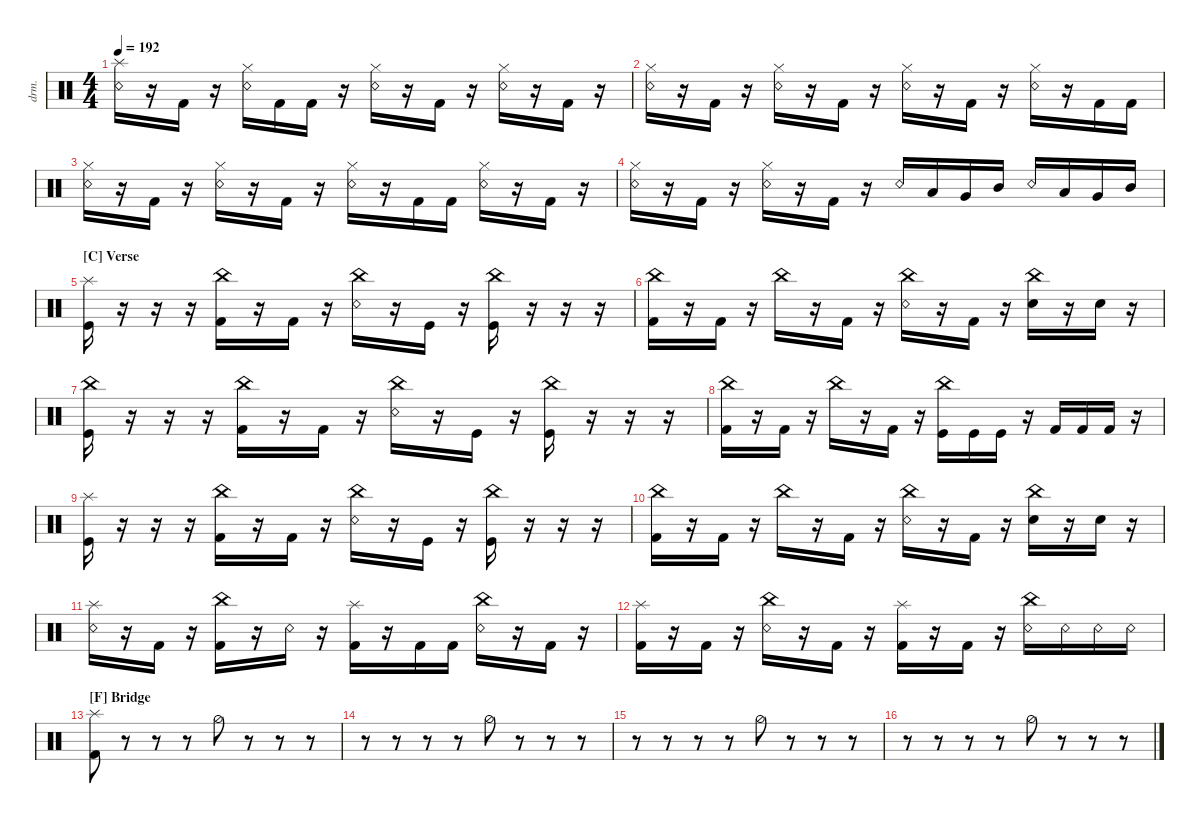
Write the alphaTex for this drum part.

\defaultSystemsLayout 4
\hideDynamics
\bracketExtendMode nobrackets
\otherSystemsTrackNameOrientation horizontal
\track ("Drumkit" "drm.") {instrument percussion}
\staff {score}
\articulation defaults
\ts (4 4)
\tempo 192
\clef neutral
\ks c
("Snare (rim shot)" "Splash (hit)").16{dy ff beam Down} r.16{beam Down} "Kick (hit) 2".16{beam Down} r.16{beam Down} ("Snare (rim shot)" "Hi-Hat (closed)").16{beam Down} "Kick (hit) 2".16{beam Down} "Kick (hit) 2".16{beam Down} r.16{beam Down} ("Snare (rim shot)" "Hi-Hat (closed)").16{beam Down} r.16{beam Down} "Kick (hit) 2".16{beam Down} r.16{beam Down} ("Snare (rim shot)" "Hi-Hat (closed)").16{beam Down} r.16{beam Down} "Kick (hit) 2".16{beam Down} r.16{beam Down} |
("Snare (rim shot)" "Hi-Hat (closed)").16{beam Down} r.16{beam Down} "Kick (hit) 2".16{beam Down} r.16{beam Down} ("Snare (rim shot)" "Hi-Hat (closed)").16{beam Down} r.16{beam Down} "Kick (hit) 2".16{beam Down} r.16{beam Down} ("Snare (rim shot)" "Hi-Hat (closed)").16{beam Down} r.16{beam Down} "Kick (hit) 2".16{beam Down} r.16{beam Down} ("Snare (rim shot)" "Hi-Hat (closed)").16{beam Down} r.16{beam Down} "Kick (hit) 2".16{beam Down} "Kick (hit) 2".16{beam Down} |
("Snare (rim shot)" "Hi-Hat (closed)").16{beam Down} r.16{beam Down} "Kick (hit) 2".16{beam Down} r.16{beam Down} ("Snare (rim shot)" "Hi-Hat (closed)").16{beam Down} r.16{beam Down} "Kick (hit) 2".16{beam Down} r.16{beam Down} ("Snare (rim shot)" "Hi-Hat (closed)").16{beam Down} r.16{beam Down} "Kick (hit) 2".16{beam Down} "Kick (hit) 2".16{beam Down} ("Snare (rim shot)" "Hi-Hat (closed)").16{beam Down} r.16{beam Down} "Kick (hit) 2".16{beam Down} r.16{beam Down} |
("Snare (rim shot)" "Hi-Hat (closed)").16{beam Down} r.16{beam Down} "Kick (hit) 2".16{beam Down} r.16{beam Down} ("Snare (rim shot)" "Hi-Hat (closed)").16{beam Down} r.16{beam Down} "Kick (hit) 2".16{beam Down} r.16{beam Down} "Snare (rim shot)".16{beam Up} "Low Tom (hit)".16{beam Up} "Very Low Tom (hit)".16{beam Up} "Mid Tom (hit)".16{beam Up} "Snare (rim shot)".16{beam Up} "Low Tom (hit)".16{beam Up} "Very Low Tom (hit)".16{beam Up} "Mid Tom (hit)".16{beam Up} |
\section ("C" "Verse")
("Kick (hit)" "Splash (hit)").16{beam Down} r.16{beam Down} r.16{beam Down} r.16{beam Down} ("China (hit)" "Kick (hit) 2").16{beam Down} r.16{beam Down} "Kick (hit) 2".16{beam Down} r.16{beam Down} ("China (hit)" "Snare (rim shot)").16{beam Down} r.16{beam Down} "Kick (hit)".16{beam Down} r.16{beam Down} ("Kick (hit)" "China (hit)").16{beam Down} r.16{beam Down} r.16{beam Down} r.16{beam Down} |
("Kick (hit) 2" "China (hit)").16{beam Down} r.16{beam Down} "Kick (hit) 2".16{beam Down} r.16{beam Down} "China (hit)".16{beam Down} r.16{beam Down} "Kick (hit) 2".16{beam Down} r.16{beam Down} ("China (hit)" "Snare (rim shot)").16{beam Down} r.16{beam Down} "Kick (hit) 2".16{beam Down} r.16{beam Down} ("China (hit)" "Snare (hit) 2").16{beam Down} r.16{beam Down} "Snare (hit) 2".16{beam Down} r.16{beam Down} |
("China (hit)" "Kick (hit)").16{beam Down} r.16{beam Down} r.16{beam Down} r.16{beam Down} ("China (hit)" "Kick (hit) 2").16{beam Down} r.16{beam Down} "Kick (hit) 2".16{beam Down} r.16{beam Down} ("China (hit)" "Snare (rim shot)").16{beam Down} r.16{beam Down} "Kick (hit)".16{beam Down} r.16{beam Down} ("Kick (hit)" "China (hit)").16{beam Down} r.16{beam Down} r.16{beam Down} r.16{beam Down} |
("Kick (hit) 2" "China (hit)").16{beam Down} r.16{beam Down} "Kick (hit) 2".16{beam Down} r.16{beam Down} "China (hit)".16{beam Down} r.16{beam Down} "Kick (hit) 2".16{beam Down} r.16{beam Down} ("Kick (hit)" "China (hit)").16{beam Down} "Kick (hit)".16{beam Down} "Kick (hit)".16{beam Down} r.16{beam Down} "Kick (hit) 2".16{beam Up} "Kick (hit) 2".16{beam Up} "Kick (hit) 2".16{beam Up} r.16{beam Up} |
("Kick (hit)" "Splash (hit)").16{beam Down} r.16{beam Down} r.16{beam Down} r.16{beam Down} ("China (hit)" "Kick (hit) 2").16{beam Down} r.16{beam Down} "Kick (hit) 2".16{beam Down} r.16{beam Down} ("China (hit)" "Snare (rim shot)").16{beam Down} r.16{beam Down} "Kick (hit)".16{beam Down} r.16{beam Down} ("Kick (hit)" "China (hit)").16{beam Down} r.16{beam Down} r.16{beam Down} r.16{beam Down} |
("Kick (hit) 2" "China (hit)").16{beam Down} r.16{beam Down} "Kick (hit) 2".16{beam Down} r.16{beam Down} "China (hit)".16{beam Down} r.16{beam Down} "Kick (hit) 2".16{beam Down} r.16{beam Down} ("China (hit)" "Snare (rim shot)").16{beam Down} r.16{beam Down} "Kick (hit) 2".16{beam Down} r.16{beam Down} ("China (hit)" "Snare (hit) 2").16{beam Down} r.16{beam Down} "Snare (hit) 2".16{beam Down} r.16{beam Down} |
("Snare (rim shot)" "Splash (hit)").16{beam Down} r.16{beam Down} "Kick (hit) 2".16{beam Down} r.16{beam Down} ("Kick (hit) 2" "China (hit)").16{beam Down} r.16{beam Down} "Snare (rim shot)".16{beam Down} r.16{beam Down} ("Kick (hit) 2" "Splash (hit)").16{beam Down} r.16{beam Down} "Kick (hit) 2".16{beam Down} "Kick (hit) 2".16{beam Down} ("Snare (rim shot)" "China (hit)").16{beam Down} r.16{beam Down} "Kick (hit) 2".16{beam Down} r.16{beam Down} |
("Kick (hit) 2" "Splash (hit)").16{beam Down} r.16{beam Down} "Kick (hit) 2".16{beam Down} r.16{beam Down} ("Snare (rim shot)" "China (hit)").16{beam Down} r.16{beam Down} "Kick (hit) 2".16{beam Down} r.16{beam Down} ("Kick (hit) 2" "Splash (hit)").16{beam Down} r.16{beam Down} "Kick (hit) 2".16{beam Down} r.16{beam Down} ("Snare (rim shot)" "China (hit)").16{beam Down} "Snare (rim shot)".16{beam Down} "Snare (rim shot)".16{beam Down} "Snare (rim shot)".16{beam Down} |
\section ("F" "Bridge")
("Splash (hit)" "Kick (hit) 2").8{beam Down} r.8{beam Down} r.8{beam Down} r.8{beam Down} "Hi-Hat (half)".8{beam Down} r.8{beam Down} r.8{beam Down} r.8{beam Down} |
r.8{beam Down} r.8{beam Down} r.8{beam Down} r.8{beam Down} "Hi-Hat (half)".8{beam Down} r.8{beam Down} r.8{beam Down} r.8{beam Down} |
r.8{beam Down} r.8{beam Down} r.8{beam Down} r.8{beam Down} "Hi-Hat (half)".8{beam Down} r.8{beam Down} r.8{beam Down} r.8{beam Down} |
r.8{beam Down} r.8{beam Down} r.8{beam Down} r.8{beam Down} "Hi-Hat (half)".8{beam Down} r.8{beam Down} r.8{beam Down} r.8{beam Down}
